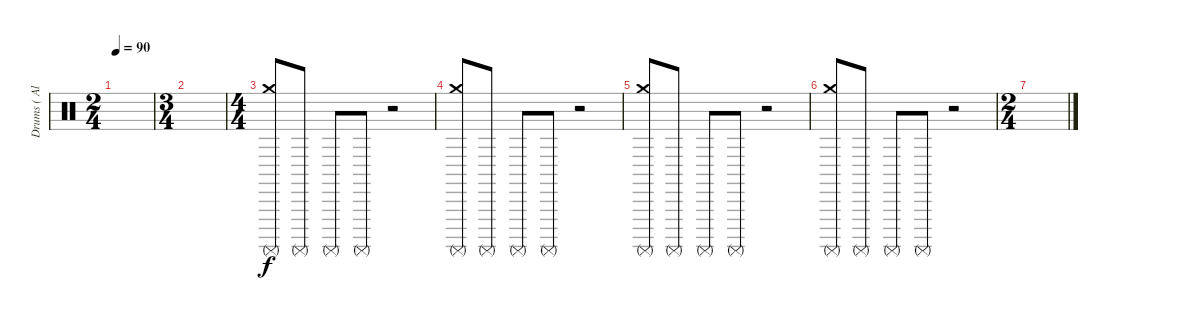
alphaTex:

\track ("Drums ( Alex Holzwarth)" "Drums ( Al") {instrument percussion}
\staff {score}
\articulation defaults
\ts (2 4)
\tempo 90
\clef neutral
\ks c
|
\ts (3 4)
|
\ts (4 4)
("Crash medium (hit)" "Surdo (mute)").8 "Surdo (mute)".8 "Surdo (mute)".8 "Surdo (mute)".8 r.2 |
("Crash medium (hit)" "Surdo (mute)").8 "Surdo (mute)".8 "Surdo (mute)".8 "Surdo (mute)".8 r.2 |
("Crash medium (hit)" "Surdo (mute)").8 "Surdo (mute)".8 "Surdo (mute)".8 "Surdo (mute)".8 r.2 |
("Crash medium (hit)" "Surdo (mute)").8 "Surdo (mute)".8 "Surdo (mute)".8 "Surdo (mute)".8 r.2 |
\ts (2 4)
